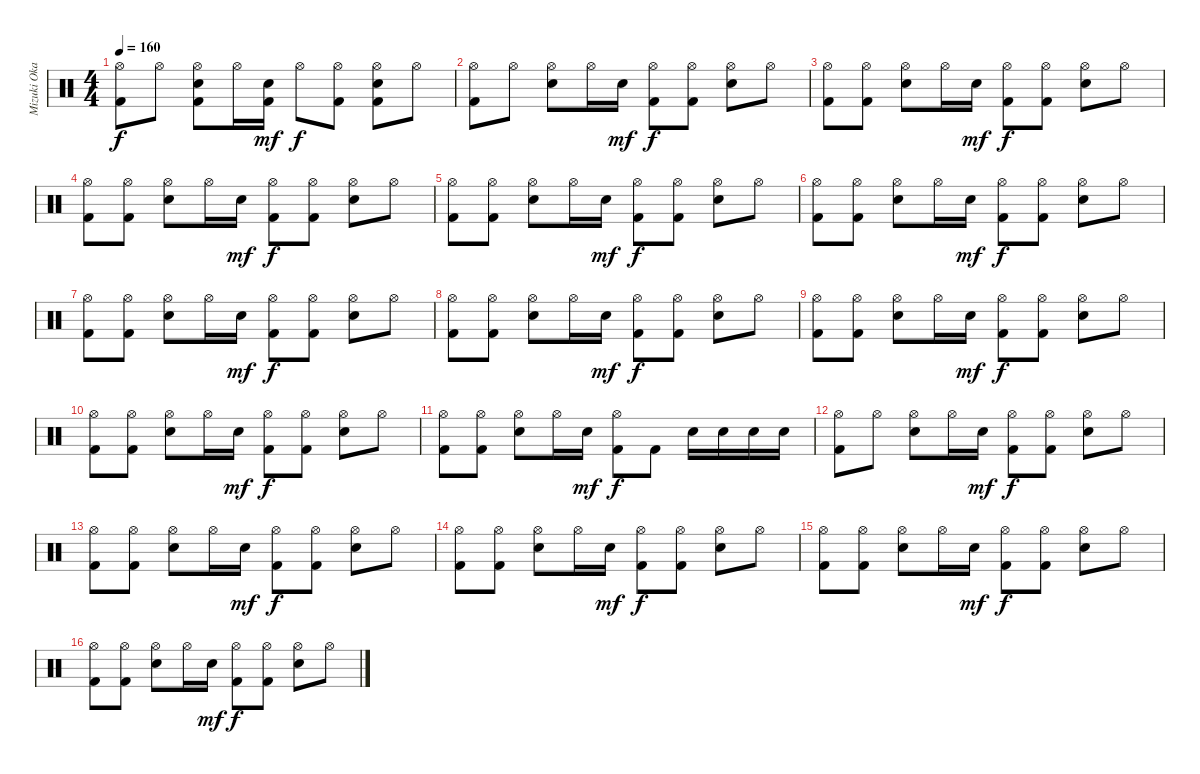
\track ("Mizuki Okajima (Drums)" "Mizuki Oka") {instrument percussion}
\staff {score}
\articulation defaults
\ts (4 4)
\tempo 160
\clef neutral
\ks c
("Hi-Hat (open)" "Kick (hit) 2").8{dy f} "Hi-Hat (open)".8 ("Hi-Hat (open)" "Snare (hit) 2" "Kick (hit) 2").8 "Hi-Hat (open)".16 ("Snare (hit) 2" "Kick (hit) 2").16{dy mf} "Hi-Hat (open)".8{dy f} ("Hi-Hat (open)" "Kick (hit) 2").8 ("Hi-Hat (open)" "Snare (hit) 2" "Kick (hit) 2").8 "Hi-Hat (open)".8 |
("Hi-Hat (open)" "Kick (hit) 2").8 "Hi-Hat (open)".8 ("Hi-Hat (open)" "Snare (hit) 2").8 "Hi-Hat (open)".16 "Snare (hit) 2".16{dy mf} ("Hi-Hat (open)" "Kick (hit) 2").8{dy f} ("Hi-Hat (open)" "Kick (hit) 2").8 ("Hi-Hat (open)" "Snare (hit) 2").8 "Hi-Hat (open)".8 |
("Hi-Hat (open)" "Kick (hit) 2").8 ("Hi-Hat (open)" "Kick (hit) 2").8 ("Hi-Hat (open)" "Snare (hit) 2").8 "Hi-Hat (open)".16 "Snare (hit) 2".16{dy mf} ("Hi-Hat (open)" "Kick (hit) 2").8{dy f} ("Hi-Hat (open)" "Kick (hit) 2").8 ("Hi-Hat (open)" "Snare (hit) 2").8 "Hi-Hat (open)".8 |
("Hi-Hat (open)" "Kick (hit) 2").8 ("Hi-Hat (open)" "Kick (hit) 2").8 ("Hi-Hat (open)" "Snare (hit) 2").8 "Hi-Hat (open)".16 "Snare (hit) 2".16{dy mf} ("Hi-Hat (open)" "Kick (hit) 2").8{dy f} ("Hi-Hat (open)" "Kick (hit) 2").8 ("Hi-Hat (open)" "Snare (hit) 2").8 "Hi-Hat (open)".8 |
("Hi-Hat (open)" "Kick (hit) 2").8 ("Hi-Hat (open)" "Kick (hit) 2").8 ("Hi-Hat (open)" "Snare (hit) 2").8 "Hi-Hat (open)".16 "Snare (hit) 2".16{dy mf} ("Hi-Hat (open)" "Kick (hit) 2").8{dy f} ("Hi-Hat (open)" "Kick (hit) 2").8 ("Hi-Hat (open)" "Snare (hit) 2").8 "Hi-Hat (open)".8 |
("Hi-Hat (open)" "Kick (hit) 2").8 ("Hi-Hat (open)" "Kick (hit) 2").8 ("Hi-Hat (open)" "Snare (hit) 2").8 "Hi-Hat (open)".16 "Snare (hit) 2".16{dy mf} ("Hi-Hat (open)" "Kick (hit) 2").8{dy f} ("Hi-Hat (open)" "Kick (hit) 2").8 ("Hi-Hat (open)" "Snare (hit) 2").8 "Hi-Hat (open)".8 |
("Hi-Hat (open)" "Kick (hit) 2").8 ("Hi-Hat (open)" "Kick (hit) 2").8 ("Hi-Hat (open)" "Snare (hit) 2").8 "Hi-Hat (open)".16 "Snare (hit) 2".16{dy mf} ("Hi-Hat (open)" "Kick (hit) 2").8{dy f} ("Hi-Hat (open)" "Kick (hit) 2").8 ("Hi-Hat (open)" "Snare (hit) 2").8 "Hi-Hat (open)".8 |
("Hi-Hat (open)" "Kick (hit) 2").8 ("Hi-Hat (open)" "Kick (hit) 2").8 ("Hi-Hat (open)" "Snare (hit) 2").8 "Hi-Hat (open)".16 "Snare (hit) 2".16{dy mf} ("Hi-Hat (open)" "Kick (hit) 2").8{dy f} ("Hi-Hat (open)" "Kick (hit) 2").8 ("Hi-Hat (open)" "Snare (hit) 2").8 "Hi-Hat (open)".8 |
("Hi-Hat (open)" "Kick (hit) 2").8 ("Hi-Hat (open)" "Kick (hit) 2").8 ("Hi-Hat (open)" "Snare (hit) 2").8 "Hi-Hat (open)".16 "Snare (hit) 2".16{dy mf} ("Hi-Hat (open)" "Kick (hit) 2").8{dy f} ("Hi-Hat (open)" "Kick (hit) 2").8 ("Hi-Hat (open)" "Snare (hit) 2").8 "Hi-Hat (open)".8 |
("Hi-Hat (open)" "Kick (hit) 2").8 ("Hi-Hat (open)" "Kick (hit) 2").8 ("Hi-Hat (open)" "Snare (hit) 2").8 "Hi-Hat (open)".16 "Snare (hit) 2".16{dy mf} ("Hi-Hat (open)" "Kick (hit) 2").8{dy f} ("Hi-Hat (open)" "Kick (hit) 2").8 ("Hi-Hat (open)" "Snare (hit) 2").8 "Hi-Hat (open)".8 |
("Hi-Hat (open)" "Kick (hit) 2").8 ("Hi-Hat (open)" "Kick (hit) 2").8 ("Hi-Hat (open)" "Snare (hit) 2").8 "Hi-Hat (open)".16 "Snare (hit) 2".16{dy mf} ("Hi-Hat (open)" "Kick (hit) 2").8{dy f} "Kick (hit) 2".8 "Snare (hit) 2".16 "Snare (hit) 2".16 "Snare (hit) 2".16 "Snare (hit) 2".16 |
("Hi-Hat (open)" "Kick (hit) 2").8 "Hi-Hat (open)".8 ("Hi-Hat (open)" "Snare (hit) 2").8 "Hi-Hat (open)".16 "Snare (hit) 2".16{dy mf} ("Hi-Hat (open)" "Kick (hit) 2").8{dy f} ("Hi-Hat (open)" "Kick (hit) 2").8 ("Hi-Hat (open)" "Snare (hit) 2").8 "Hi-Hat (open)".8 |
("Hi-Hat (open)" "Kick (hit) 2").8 ("Hi-Hat (open)" "Kick (hit) 2").8 ("Hi-Hat (open)" "Snare (hit) 2").8 "Hi-Hat (open)".16 "Snare (hit) 2".16{dy mf} ("Hi-Hat (open)" "Kick (hit) 2").8{dy f} ("Hi-Hat (open)" "Kick (hit) 2").8 ("Hi-Hat (open)" "Snare (hit) 2").8 "Hi-Hat (open)".8 |
("Hi-Hat (open)" "Kick (hit) 2").8 ("Hi-Hat (open)" "Kick (hit) 2").8 ("Hi-Hat (open)" "Snare (hit) 2").8 "Hi-Hat (open)".16 "Snare (hit) 2".16{dy mf} ("Hi-Hat (open)" "Kick (hit) 2").8{dy f} ("Hi-Hat (open)" "Kick (hit) 2").8 ("Hi-Hat (open)" "Snare (hit) 2").8 "Hi-Hat (open)".8 |
("Hi-Hat (open)" "Kick (hit) 2").8 ("Hi-Hat (open)" "Kick (hit) 2").8 ("Hi-Hat (open)" "Snare (hit) 2").8 "Hi-Hat (open)".16 "Snare (hit) 2".16{dy mf} ("Hi-Hat (open)" "Kick (hit) 2").8{dy f} ("Hi-Hat (open)" "Kick (hit) 2").8 ("Hi-Hat (open)" "Snare (hit) 2").8 "Hi-Hat (open)".8 |
("Hi-Hat (open)" "Kick (hit) 2").8 ("Hi-Hat (open)" "Kick (hit) 2").8 ("Hi-Hat (open)" "Snare (hit) 2").8 "Hi-Hat (open)".16 "Snare (hit) 2".16{dy mf} ("Hi-Hat (open)" "Kick (hit) 2").8{dy f} ("Hi-Hat (open)" "Kick (hit) 2").8 ("Hi-Hat (open)" "Snare (hit) 2").8 "Hi-Hat (open)".8
